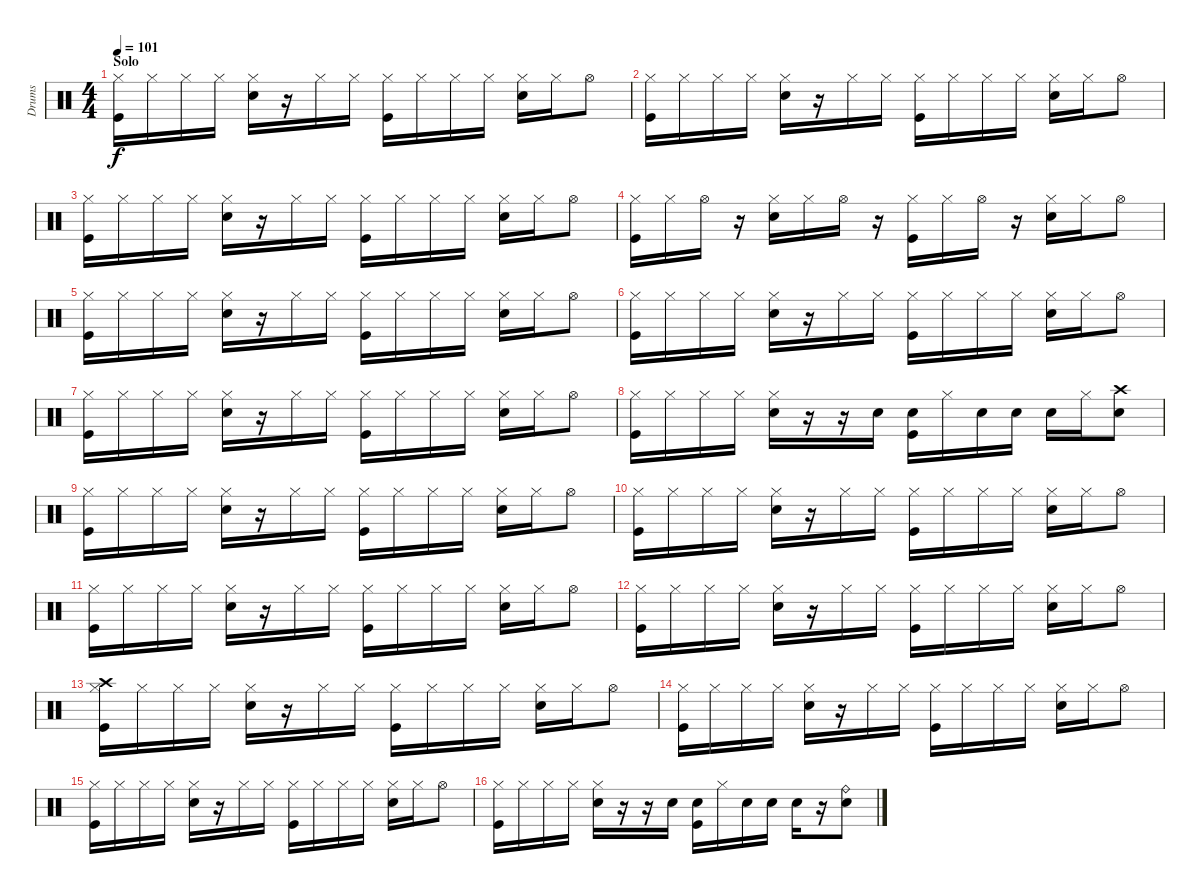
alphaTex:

\track ("Drums" "Drums") {instrument percussion}
\staff {score}
\articulation defaults
\ts (4 4)
\section ("" "Solo")
\tempo 101
\clef neutral
\ks c
("Hi-Hat (closed)" "Kick (hit)").16{dy f} "Hi-Hat (closed)".16 "Hi-Hat (closed)".16 "Hi-Hat (closed)".16 ("Hi-Hat (closed)" "Snare (hit) 2").16 r.16 "Hi-Hat (closed)".16 "Hi-Hat (closed)".16 ("Hi-Hat (closed)" "Kick (hit)").16 "Hi-Hat (closed)".16 "Hi-Hat (closed)".16 "Hi-Hat (closed)".16 ("Hi-Hat (closed)" "Snare (hit) 2").16 "Hi-Hat (closed)".16 "Hi-Hat (open)".8 |
("Hi-Hat (closed)" "Kick (hit)").16 "Hi-Hat (closed)".16 "Hi-Hat (closed)".16 "Hi-Hat (closed)".16 ("Hi-Hat (closed)" "Snare (hit) 2").16 r.16 "Hi-Hat (closed)".16 "Hi-Hat (closed)".16 ("Hi-Hat (closed)" "Kick (hit)").16 "Hi-Hat (closed)".16 "Hi-Hat (closed)".16 "Hi-Hat (closed)".16 ("Hi-Hat (closed)" "Snare (hit) 2").16 "Hi-Hat (closed)".16 "Hi-Hat (open)".8 |
("Hi-Hat (closed)" "Kick (hit)").16 "Hi-Hat (closed)".16 "Hi-Hat (closed)".16 "Hi-Hat (closed)".16 ("Hi-Hat (closed)" "Snare (hit) 2").16 r.16 "Hi-Hat (closed)".16 "Hi-Hat (closed)".16 ("Hi-Hat (closed)" "Kick (hit)").16 "Hi-Hat (closed)".16 "Hi-Hat (closed)".16 "Hi-Hat (closed)".16 ("Hi-Hat (closed)" "Snare (hit) 2").16 "Hi-Hat (closed)".16 "Hi-Hat (open)".8 |
("Hi-Hat (closed)" "Kick (hit)").16 "Hi-Hat (closed)".16 "Hi-Hat (open)".16 r.16 ("Hi-Hat (closed)" "Snare (hit) 2").16 "Hi-Hat (closed)".16 "Hi-Hat (open)".16 r.16 ("Hi-Hat (closed)" "Kick (hit)").16 "Hi-Hat (closed)".16 "Hi-Hat (open)".16 r.16 ("Hi-Hat (closed)" "Snare (hit) 2").16 "Hi-Hat (closed)".16 "Hi-Hat (open)".8 |
("Hi-Hat (closed)" "Kick (hit)").16 "Hi-Hat (closed)".16 "Hi-Hat (closed)".16 "Hi-Hat (closed)".16 ("Hi-Hat (closed)" "Snare (hit) 2").16 r.16 "Hi-Hat (closed)".16 "Hi-Hat (closed)".16 ("Hi-Hat (closed)" "Kick (hit)").16 "Hi-Hat (closed)".16 "Hi-Hat (closed)".16 "Hi-Hat (closed)".16 ("Hi-Hat (closed)" "Snare (hit) 2").16 "Hi-Hat (closed)".16 "Hi-Hat (open)".8 |
("Hi-Hat (closed)" "Kick (hit)").16 "Hi-Hat (closed)".16 "Hi-Hat (closed)".16 "Hi-Hat (closed)".16 ("Hi-Hat (closed)" "Snare (hit) 2").16 r.16 "Hi-Hat (closed)".16 "Hi-Hat (closed)".16 ("Hi-Hat (closed)" "Kick (hit)").16 "Hi-Hat (closed)".16 "Hi-Hat (closed)".16 "Hi-Hat (closed)".16 ("Hi-Hat (closed)" "Snare (hit) 2").16 "Hi-Hat (closed)".16 "Hi-Hat (open)".8 |
("Hi-Hat (closed)" "Kick (hit)").16 "Hi-Hat (closed)".16 "Hi-Hat (closed)".16 "Hi-Hat (closed)".16 ("Hi-Hat (closed)" "Snare (hit) 2").16 r.16 "Hi-Hat (closed)".16 "Hi-Hat (closed)".16 ("Hi-Hat (closed)" "Kick (hit)").16 "Hi-Hat (closed)".16 "Hi-Hat (closed)".16 "Hi-Hat (closed)".16 ("Hi-Hat (closed)" "Snare (hit) 2").16 "Hi-Hat (closed)".16 "Hi-Hat (open)".8 |
("Hi-Hat (closed)" "Kick (hit)").16 "Hi-Hat (closed)".16 "Hi-Hat (closed)".16 "Hi-Hat (closed)".16 ("Hi-Hat (closed)" "Snare (hit) 2").16 r.16 r.16 "Snare (hit) 2".16 ("Snare (hit) 2" "Kick (hit)").16 "Hi-Hat (closed)".16 "Snare (hit) 2".16 "Snare (hit) 2".16 "Snare (hit) 2".16 "Hi-Hat (closed)".16 ("Crash high (hit)" "Snare (hit) 2").8 |
("Hi-Hat (closed)" "Kick (hit)").16 "Hi-Hat (closed)".16 "Hi-Hat (closed)".16 "Hi-Hat (closed)".16 ("Hi-Hat (closed)" "Snare (hit) 2").16 r.16 "Hi-Hat (closed)".16 "Hi-Hat (closed)".16 ("Hi-Hat (closed)" "Kick (hit)").16 "Hi-Hat (closed)".16 "Hi-Hat (closed)".16 "Hi-Hat (closed)".16 ("Hi-Hat (closed)" "Snare (hit) 2").16 "Hi-Hat (closed)".16 "Hi-Hat (open)".8 |
("Hi-Hat (closed)" "Kick (hit)").16 "Hi-Hat (closed)".16 "Hi-Hat (closed)".16 "Hi-Hat (closed)".16 ("Hi-Hat (closed)" "Snare (hit) 2").16 r.16 "Hi-Hat (closed)".16 "Hi-Hat (closed)".16 ("Hi-Hat (closed)" "Kick (hit)").16 "Hi-Hat (closed)".16 "Hi-Hat (closed)".16 "Hi-Hat (closed)".16 ("Hi-Hat (closed)" "Snare (hit) 2").16 "Hi-Hat (closed)".16 "Hi-Hat (open)".8 |
("Hi-Hat (closed)" "Kick (hit)").16 "Hi-Hat (closed)".16 "Hi-Hat (closed)".16 "Hi-Hat (closed)".16 ("Hi-Hat (closed)" "Snare (hit) 2").16 r.16 "Hi-Hat (closed)".16 "Hi-Hat (closed)".16 ("Hi-Hat (closed)" "Kick (hit)").16 "Hi-Hat (closed)".16 "Hi-Hat (closed)".16 "Hi-Hat (closed)".16 ("Hi-Hat (closed)" "Snare (hit) 2").16 "Hi-Hat (closed)".16 "Hi-Hat (open)".8 |
("Hi-Hat (closed)" "Kick (hit)").16 "Hi-Hat (closed)".16 "Hi-Hat (closed)".16 "Hi-Hat (closed)".16 ("Hi-Hat (closed)" "Snare (hit) 2").16 r.16 "Hi-Hat (closed)".16 "Hi-Hat (closed)".16 ("Hi-Hat (closed)" "Kick (hit)").16 "Hi-Hat (closed)".16 "Hi-Hat (closed)".16 "Hi-Hat (closed)".16 ("Hi-Hat (closed)" "Snare (hit) 2").16 "Hi-Hat (closed)".16 "Hi-Hat (open)".8 |
("Hi-Hat (closed)" "Crash high (hit)" "Kick (hit)").16 "Hi-Hat (closed)".16 "Hi-Hat (closed)".16 "Hi-Hat (closed)".16 ("Hi-Hat (closed)" "Snare (hit) 2").16 r.16 "Hi-Hat (closed)".16 "Hi-Hat (closed)".16 ("Hi-Hat (closed)" "Kick (hit)").16 "Hi-Hat (closed)".16 "Hi-Hat (closed)".16 "Hi-Hat (closed)".16 ("Hi-Hat (closed)" "Snare (hit) 2").16 "Hi-Hat (closed)".16 "Hi-Hat (open)".8 |
("Hi-Hat (closed)" "Kick (hit)").16 "Hi-Hat (closed)".16 "Hi-Hat (closed)".16 "Hi-Hat (closed)".16 ("Hi-Hat (closed)" "Snare (hit) 2").16 r.16 "Hi-Hat (closed)".16 "Hi-Hat (closed)".16 ("Hi-Hat (closed)" "Kick (hit)").16 "Hi-Hat (closed)".16 "Hi-Hat (closed)".16 "Hi-Hat (closed)".16 ("Hi-Hat (closed)" "Snare (hit) 2").16 "Hi-Hat (closed)".16 "Hi-Hat (open)".8 |
("Hi-Hat (closed)" "Kick (hit)").16 "Hi-Hat (closed)".16 "Hi-Hat (closed)".16 "Hi-Hat (closed)".16 ("Hi-Hat (closed)" "Snare (hit) 2").16 r.16 "Hi-Hat (closed)".16 "Hi-Hat (closed)".16 ("Hi-Hat (closed)" "Kick (hit)").16 "Hi-Hat (closed)".16 "Hi-Hat (closed)".16 "Hi-Hat (closed)".16 ("Hi-Hat (closed)" "Snare (hit) 2").16 "Hi-Hat (closed)".16 "Hi-Hat (open)".8 |
("Hi-Hat (closed)" "Kick (hit)").16 "Hi-Hat (closed)".16 "Hi-Hat (closed)".16 "Hi-Hat (closed)".16 ("Hi-Hat (closed)" "Snare (hit) 2").16 r.16 r.16 "Snare (hit) 2".16 ("Snare (hit) 2" "Kick (hit)").16 "Hi-Hat (closed)".16 "Snare (hit) 2".16 "Snare (hit) 2".16 "Snare (hit) 2".16 r.16 ("Ride (bell)" "Snare (hit) 2").8
